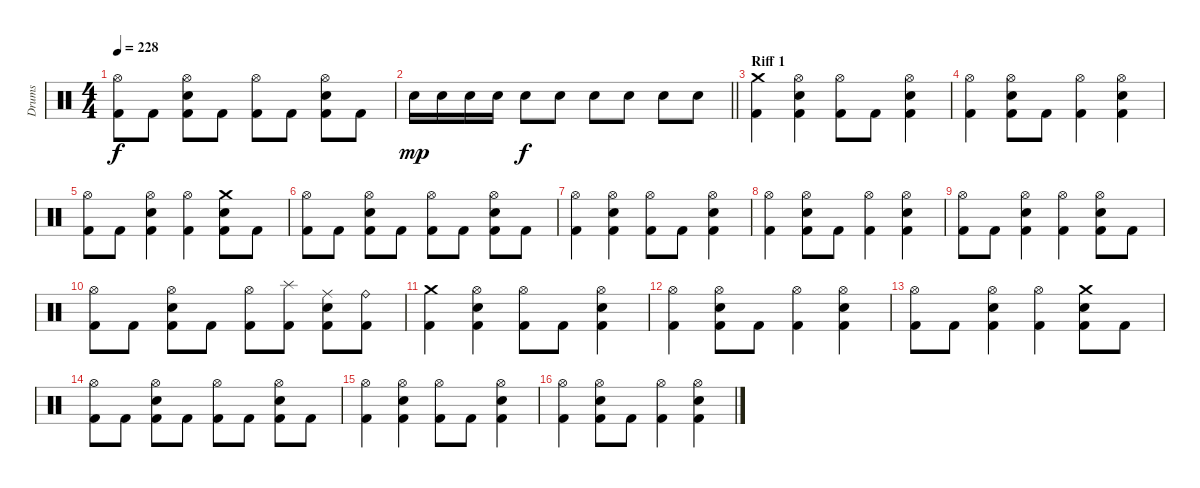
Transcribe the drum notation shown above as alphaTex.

\track ("Drums" "Drums") {instrument percussion}
\staff {score}
\articulation defaults
\ts (4 4)
\tempo 228
\clef neutral
\ks c
("Hi-Hat (open)" "Kick (hit) 2").8{dy f} "Kick (hit) 2".8 ("Electric Snare (hit)" "Hi-Hat (open)" "Kick (hit) 2").8 "Kick (hit) 2".8 ("Hi-Hat (open)" "Kick (hit) 2").8 "Kick (hit) 2".8 ("Electric Snare (hit)" "Hi-Hat (open)" "Kick (hit) 2").8 "Kick (hit) 2".8 |
\barLineRight lightlight "Electric Snare (hit)".16{dy mp} "Electric Snare (hit)".16 "Electric Snare (hit)".16 "Electric Snare (hit)".16 "Electric Snare (hit)".8{dy f} "Electric Snare (hit)".8 "Electric Snare (hit)".8 "Electric Snare (hit)".8 "Electric Snare (hit)".8 "Electric Snare (hit)".8
|
\section ("" "Riff 1")
("Crash medium (hit)" "Kick (hit) 2").4 ("Electric Snare (hit)" "Hi-Hat (open)" "Kick (hit) 2").4 ("Hi-Hat (open)" "Kick (hit) 2").8 "Kick (hit) 2".8 ("Electric Snare (hit)" "Kick (hit) 2" "Hi-Hat (open)").4 |
("Hi-Hat (open)" "Kick (hit) 2").4 ("Hi-Hat (open)" "Kick (hit) 2" "Electric Snare (hit)").8 "Kick (hit) 2".8 ("Kick (hit) 2" "Hi-Hat (open)").4 ("Electric Snare (hit)" "Hi-Hat (open)" "Kick (hit) 2").4 |
("Hi-Hat (open)" "Kick (hit) 2").8 "Kick (hit) 2".8 ("Electric Snare (hit)" "Kick (hit) 2" "Hi-Hat (open)").4 ("Hi-Hat (open)" "Kick (hit) 2").4 ("Crash medium (hit)" "Kick (hit) 2" "Electric Snare (hit)").8 "Kick (hit) 2".8 |
("Kick (hit) 2" "Hi-Hat (open)").8 "Kick (hit) 2".8 ("Kick (hit) 2" "Electric Snare (hit)" "Hi-Hat (open)").8 "Kick (hit) 2".8 ("Kick (hit) 2" "Hi-Hat (open)").8 "Kick (hit) 2".8 ("Kick (hit) 2" "Electric Snare (hit)" "Hi-Hat (open)").8 "Kick (hit) 2".8 |
("Hi-Hat (open)" "Kick (hit) 2").4 ("Electric Snare (hit)" "Hi-Hat (open)" "Kick (hit) 2").4 ("Hi-Hat (open)" "Kick (hit) 2").8 "Kick (hit) 2".8 ("Electric Snare (hit)" "Kick (hit) 2" "Hi-Hat (open)").4 |
("Hi-Hat (open)" "Kick (hit) 2").4 ("Hi-Hat (open)" "Kick (hit) 2" "Electric Snare (hit)").8 "Kick (hit) 2".8 ("Kick (hit) 2" "Hi-Hat (open)").4 ("Electric Snare (hit)" "Hi-Hat (open)" "Kick (hit) 2").4 |
("Hi-Hat (open)" "Kick (hit) 2").8 "Kick (hit) 2".8 ("Electric Snare (hit)" "Kick (hit) 2" "Hi-Hat (open)").4 ("Hi-Hat (open)" "Kick (hit) 2").4 ("Hi-Hat (open)" "Kick (hit) 2" "Electric Snare (hit)").8 "Kick (hit) 2".8 |
("Kick (hit) 2" "Hi-Hat (open)").8 "Kick (hit) 2".8 ("Kick (hit) 2" "Electric Snare (hit)" "Hi-Hat (open)").8 "Kick (hit) 2".8 ("Kick (hit) 2" "Hi-Hat (open)").8 ("Kick (hit) 2" "Splash (hit)").8 ("Kick (hit) 2" "Electric Snare (hit)" "Ride (middle)").8 ("Kick (hit) 2" "Ride (bell)").8 |
("Crash medium (hit)" "Kick (hit) 2").4 ("Electric Snare (hit)" "Hi-Hat (open)" "Kick (hit) 2").4 ("Hi-Hat (open)" "Kick (hit) 2").8 "Kick (hit) 2".8 ("Electric Snare (hit)" "Kick (hit) 2" "Hi-Hat (open)").4 |
("Hi-Hat (open)" "Kick (hit) 2").4 ("Hi-Hat (open)" "Kick (hit) 2" "Electric Snare (hit)").8 "Kick (hit) 2".8 ("Kick (hit) 2" "Hi-Hat (open)").4 ("Electric Snare (hit)" "Hi-Hat (open)" "Kick (hit) 2").4 |
("Hi-Hat (open)" "Kick (hit) 2").8 "Kick (hit) 2".8 ("Electric Snare (hit)" "Kick (hit) 2" "Hi-Hat (open)").4 ("Hi-Hat (open)" "Kick (hit) 2").4 ("Crash medium (hit)" "Kick (hit) 2" "Electric Snare (hit)").8 "Kick (hit) 2".8 |
("Kick (hit) 2" "Hi-Hat (open)").8 "Kick (hit) 2".8 ("Kick (hit) 2" "Electric Snare (hit)" "Hi-Hat (open)").8 "Kick (hit) 2".8 ("Kick (hit) 2" "Hi-Hat (open)").8 "Kick (hit) 2".8 ("Kick (hit) 2" "Electric Snare (hit)" "Hi-Hat (open)").8 "Kick (hit) 2".8 |
("Hi-Hat (open)" "Kick (hit) 2").4 ("Electric Snare (hit)" "Hi-Hat (open)" "Kick (hit) 2").4 ("Hi-Hat (open)" "Kick (hit) 2").8 "Kick (hit) 2".8 ("Electric Snare (hit)" "Kick (hit) 2" "Hi-Hat (open)").4 |
("Hi-Hat (open)" "Kick (hit) 2").4 ("Hi-Hat (open)" "Kick (hit) 2" "Electric Snare (hit)").8 "Kick (hit) 2".8 ("Kick (hit) 2" "Hi-Hat (open)").4 ("Electric Snare (hit)" "Hi-Hat (open)" "Kick (hit) 2").4
